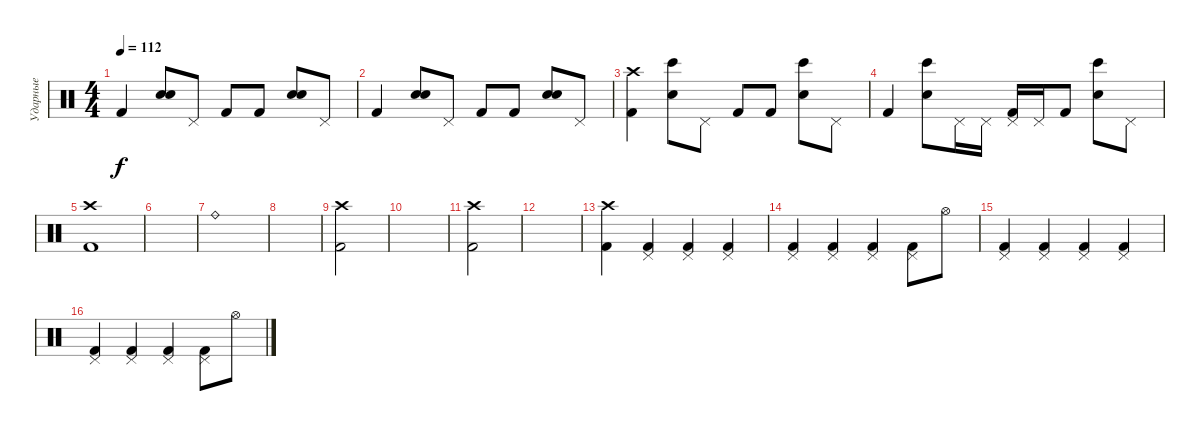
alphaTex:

\track ("Ударные" "Ударные") {instrument percussion}
\staff {score}
\articulation defaults
\ts (4 4)
\tempo 112
\clef neutral
\ks c "Kick (hit) 2".4{dy f}
("Electric Snare (hit)" "Snare (hit) 2").8 "Pedal Hi-Hat (hit)".8 "Kick (hit) 2".8 "Kick (hit) 2".8 ("Electric Snare (hit)" "Snare (hit) 2").8 "Pedal Hi-Hat (hit)".8 |
"Kick (hit) 2".4 ("Electric Snare (hit)" "Snare (hit) 2").8 "Pedal Hi-Hat (hit)".8 "Kick (hit) 2".8 "Kick (hit) 2".8 ("Electric Snare (hit)" "Snare (hit) 2").8 "Pedal Hi-Hat (hit)".8 |
("Crash high (hit)" "Kick (hit) 2").4 ("Bongo High (hit)" "Snare (hit) 2").8 "Pedal Hi-Hat (hit)".8 "Kick (hit) 2".8 "Kick (hit) 2".8 ("Bongo High (hit)" "Snare (hit) 2").8 "Pedal Hi-Hat (hit)".8 |
"Kick (hit) 2".4 ("Bongo High (hit)" "Snare (hit) 2").8 "Pedal Hi-Hat (hit)".16 "Pedal Hi-Hat (hit)".16 ("Pedal Hi-Hat (hit)" "Kick (hit) 2").16 "Pedal Hi-Hat (hit)".16 "Kick (hit) 2".8 ("Bongo High (hit)" "Snare (hit) 2").8 "Pedal Hi-Hat (hit)".8 |
("Crash high (hit)" "Kick (hit) 2").1 |
|
"Ride (bell)".1 |
|
("Crash high (hit)" "Kick (hit) 2").2 |
|
("Crash high (hit)" "Kick (hit) 2").2 |
|
("Crash high (hit)" "Kick (hit) 2").4 ("Pedal Hi-Hat (hit)" "Kick (hit) 2").4 ("Pedal Hi-Hat (hit)" "Kick (hit) 2").4 ("Pedal Hi-Hat (hit)" "Kick (hit) 2").4 |
("Pedal Hi-Hat (hit)" "Kick (hit) 2").4 ("Pedal Hi-Hat (hit)" "Kick (hit) 2").4 ("Pedal Hi-Hat (hit)" "Kick (hit) 2").4 ("Pedal Hi-Hat (hit)" "Kick (hit) 2").8 "Hi-Hat (open)".8 |
("Pedal Hi-Hat (hit)" "Kick (hit) 2").4 ("Pedal Hi-Hat (hit)" "Kick (hit) 2").4 ("Pedal Hi-Hat (hit)" "Kick (hit) 2").4 ("Pedal Hi-Hat (hit)" "Kick (hit) 2").4 |
("Pedal Hi-Hat (hit)" "Kick (hit) 2").4 ("Pedal Hi-Hat (hit)" "Kick (hit) 2").4 ("Pedal Hi-Hat (hit)" "Kick (hit) 2").4 ("Pedal Hi-Hat (hit)" "Kick (hit) 2").8 "Hi-Hat (open)".8
